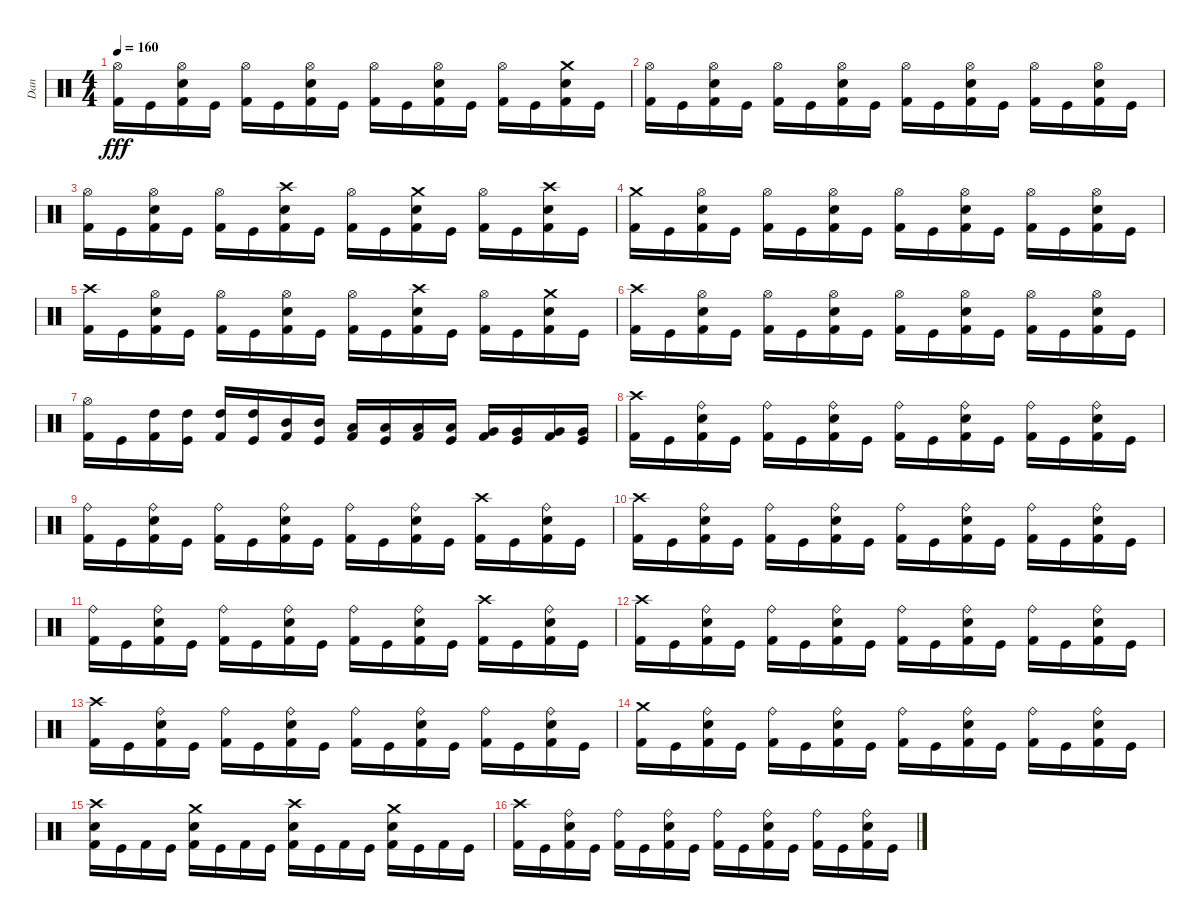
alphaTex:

\track ("Dan " "Dan ") {instrument percussion}
\staff {score}
\articulation defaults
\ts (4 4)
\tempo 160
\clef neutral
\ks c
("Hi-Hat (open)" "Kick (hit) 2").16{dy fff} "Kick (hit)".16 ("Hi-Hat (open)" "Electric Snare (hit)" "Kick (hit) 2").16 "Kick (hit)".16 ("Hi-Hat (open)" "Kick (hit) 2").16 "Kick (hit)".16 ("Hi-Hat (open)" "Electric Snare (hit)" "Kick (hit) 2").16 "Kick (hit)".16 ("Hi-Hat (open)" "Kick (hit) 2").16 "Kick (hit)".16 ("Hi-Hat (open)" "Electric Snare (hit)" "Kick (hit) 2").16 "Kick (hit)".16 ("Hi-Hat (open)" "Kick (hit) 2").16 "Kick (hit)".16 ("Crash medium (hit)" "Electric Snare (hit)" "Kick (hit) 2").16 "Kick (hit)".16 |
("Hi-Hat (open)" "Kick (hit) 2").16 "Kick (hit)".16 ("Hi-Hat (open)" "Electric Snare (hit)" "Kick (hit) 2").16 "Kick (hit)".16 ("Hi-Hat (open)" "Kick (hit) 2").16 "Kick (hit)".16 ("Hi-Hat (open)" "Electric Snare (hit)" "Kick (hit) 2").16 "Kick (hit)".16 ("Hi-Hat (open)" "Kick (hit) 2").16 "Kick (hit)".16 ("Hi-Hat (open)" "Electric Snare (hit)" "Kick (hit) 2").16 "Kick (hit)".16 ("Hi-Hat (open)" "Kick (hit) 2").16 "Kick (hit)".16 ("Hi-Hat (open)" "Electric Snare (hit)" "Kick (hit) 2").16 "Kick (hit)".16 |
("Hi-Hat (open)" "Kick (hit) 2").16 "Kick (hit)".16 ("Hi-Hat (open)" "Electric Snare (hit)" "Kick (hit) 2").16 "Kick (hit)".16 ("Hi-Hat (open)" "Kick (hit) 2").16 "Kick (hit)".16 ("Crash high (hit)" "Electric Snare (hit)" "Kick (hit) 2").16 "Kick (hit)".16 ("Hi-Hat (open)" "Kick (hit) 2").16 "Kick (hit)".16 ("Crash medium (hit)" "Electric Snare (hit)" "Kick (hit) 2").16 "Kick (hit)".16 ("Hi-Hat (open)" "Kick (hit) 2").16 "Kick (hit)".16 ("Crash high (hit)" "Electric Snare (hit)" "Kick (hit) 2").16 "Kick (hit)".16 |
("Crash medium (hit)" "Kick (hit) 2").16 "Kick (hit)".16 ("Hi-Hat (open)" "Electric Snare (hit)" "Kick (hit) 2").16 "Kick (hit)".16 ("Hi-Hat (open)" "Kick (hit) 2").16 "Kick (hit)".16 ("Hi-Hat (open)" "Electric Snare (hit)" "Kick (hit) 2").16 "Kick (hit)".16 ("Hi-Hat (open)" "Kick (hit) 2").16 "Kick (hit)".16 ("Hi-Hat (open)" "Electric Snare (hit)" "Kick (hit) 2").16 "Kick (hit)".16 ("Hi-Hat (open)" "Kick (hit) 2").16 "Kick (hit)".16 ("Hi-Hat (open)" "Electric Snare (hit)" "Kick (hit) 2").16 "Kick (hit)".16 |
("Crash high (hit)" "Kick (hit) 2").16 "Kick (hit)".16 ("Hi-Hat (open)" "Electric Snare (hit)" "Kick (hit) 2").16 "Kick (hit)".16 ("Hi-Hat (open)" "Kick (hit) 2").16 "Kick (hit)".16 ("Hi-Hat (open)" "Electric Snare (hit)" "Kick (hit) 2").16 "Kick (hit)".16 ("Hi-Hat (open)" "Kick (hit) 2").16 "Kick (hit)".16 ("Crash high (hit)" "Electric Snare (hit)" "Kick (hit) 2").16 "Kick (hit)".16 ("Hi-Hat (open)" "Kick (hit) 2").16 "Kick (hit)".16 ("Crash medium (hit)" "Electric Snare (hit)" "Kick (hit) 2").16 "Kick (hit)".16 |
("Crash high (hit)" "Kick (hit) 2").16 "Kick (hit)".16 ("Hi-Hat (open)" "Electric Snare (hit)" "Kick (hit) 2").16 "Kick (hit)".16 ("Hi-Hat (open)" "Kick (hit) 2").16 "Kick (hit)".16 ("Hi-Hat (open)" "Electric Snare (hit)" "Kick (hit) 2").16 "Kick (hit)".16 ("Hi-Hat (open)" "Kick (hit) 2").16 "Kick (hit)".16 ("Hi-Hat (open)" "Electric Snare (hit)" "Kick (hit) 2").16 "Kick (hit)".16 ("Hi-Hat (open)" "Kick (hit) 2").16 "Kick (hit)".16 ("Hi-Hat (open)" "Electric Snare (hit)" "Kick (hit) 2").16 "Kick (hit)".16 |
("Hi-Hat (open)" "Kick (hit) 2").16 "Kick (hit)".16 ("High Tom (hit)" "Kick (hit) 2").16 ("High Tom (hit)" "Kick (hit)").16 ("High Tom (hit)" "Kick (hit) 2").16 ("High Tom (hit)" "Kick (hit)").16 ("Mid Tom (hit)" "Kick (hit) 2").16 ("Mid Tom (hit)" "Kick (hit)").16 ("Low Tom (hit)" "Kick (hit) 2").16 ("Low Tom (hit)" "Kick (hit)").16 ("Low Tom (hit)" "Kick (hit) 2").16 ("Low Tom (hit)" "Kick (hit)").16 ("Very Low Tom (hit)" "Kick (hit) 2").16 ("Very Low Tom (hit)" "Kick (hit)").16 ("Very Low Tom (hit)" "Kick (hit) 2").16 ("Very Low Tom (hit)" "Kick (hit)").16 |
("Crash high (hit)" "Kick (hit) 2").16 "Kick (hit)".16 ("Ride (bell)" "Electric Snare (hit)" "Kick (hit) 2").16 "Kick (hit)".16 ("Ride (bell)" "Kick (hit) 2").16 "Kick (hit)".16 ("Ride (bell)" "Electric Snare (hit)" "Kick (hit) 2").16 "Kick (hit)".16 ("Ride (bell)" "Kick (hit) 2").16 "Kick (hit)".16 ("Ride (bell)" "Electric Snare (hit)" "Kick (hit) 2").16 "Kick (hit)".16 ("Ride (bell)" "Kick (hit) 2").16 "Kick (hit)".16 ("Ride (bell)" "Electric Snare (hit)" "Kick (hit) 2").16 "Kick (hit)".16 |
("Ride (bell)" "Kick (hit) 2").16 "Kick (hit)".16 ("Ride (bell)" "Electric Snare (hit)" "Kick (hit) 2").16 "Kick (hit)".16 ("Ride (bell)" "Kick (hit) 2").16 "Kick (hit)".16 ("Ride (bell)" "Electric Snare (hit)" "Kick (hit) 2").16 "Kick (hit)".16 ("Ride (bell)" "Kick (hit) 2").16 "Kick (hit)".16 ("Ride (bell)" "Electric Snare (hit)" "Kick (hit) 2").16 "Kick (hit)".16 ("Crash high (hit)" "Kick (hit) 2").16 "Kick (hit)".16 ("Ride (bell)" "Electric Snare (hit)" "Kick (hit) 2").16 "Kick (hit)".16 |
("Crash high (hit)" "Kick (hit) 2").16 "Kick (hit)".16 ("Ride (bell)" "Electric Snare (hit)" "Kick (hit) 2").16 "Kick (hit)".16 ("Ride (bell)" "Kick (hit) 2").16 "Kick (hit)".16 ("Ride (bell)" "Electric Snare (hit)" "Kick (hit) 2").16 "Kick (hit)".16 ("Ride (bell)" "Kick (hit) 2").16 "Kick (hit)".16 ("Ride (bell)" "Electric Snare (hit)" "Kick (hit) 2").16 "Kick (hit)".16 ("Ride (bell)" "Kick (hit) 2").16 "Kick (hit)".16 ("Ride (bell)" "Electric Snare (hit)" "Kick (hit) 2").16 "Kick (hit)".16 |
("Ride (bell)" "Kick (hit) 2").16 "Kick (hit)".16 ("Ride (bell)" "Electric Snare (hit)" "Kick (hit) 2").16 "Kick (hit)".16 ("Ride (bell)" "Kick (hit) 2").16 "Kick (hit)".16 ("Ride (bell)" "Electric Snare (hit)" "Kick (hit) 2").16 "Kick (hit)".16 ("Ride (bell)" "Kick (hit) 2").16 "Kick (hit)".16 ("Ride (bell)" "Electric Snare (hit)" "Kick (hit) 2").16 "Kick (hit)".16 ("Crash high (hit)" "Kick (hit) 2").16 "Kick (hit)".16 ("Ride (bell)" "Electric Snare (hit)" "Kick (hit) 2").16 "Kick (hit)".16 |
("Crash high (hit)" "Kick (hit) 2").16 "Kick (hit)".16 ("Ride (bell)" "Electric Snare (hit)" "Kick (hit) 2").16 "Kick (hit)".16 ("Ride (bell)" "Kick (hit) 2").16 "Kick (hit)".16 ("Ride (bell)" "Electric Snare (hit)" "Kick (hit) 2").16 "Kick (hit)".16 ("Ride (bell)" "Kick (hit) 2").16 "Kick (hit)".16 ("Ride (bell)" "Electric Snare (hit)" "Kick (hit) 2").16 "Kick (hit)".16 ("Ride (bell)" "Kick (hit) 2").16 "Kick (hit)".16 ("Ride (bell)" "Electric Snare (hit)" "Kick (hit) 2").16 "Kick (hit)".16 |
("Crash high (hit)" "Kick (hit) 2").16 "Kick (hit)".16 ("Ride (bell)" "Electric Snare (hit)" "Kick (hit) 2").16 "Kick (hit)".16 ("Ride (bell)" "Kick (hit) 2").16 "Kick (hit)".16 ("Ride (bell)" "Electric Snare (hit)" "Kick (hit) 2").16 "Kick (hit)".16 ("Ride (bell)" "Kick (hit) 2").16 "Kick (hit)".16 ("Ride (bell)" "Electric Snare (hit)" "Kick (hit) 2").16 "Kick (hit)".16 ("Ride (bell)" "Kick (hit) 2").16 "Kick (hit)".16 ("Ride (bell)" "Electric Snare (hit)" "Kick (hit) 2").16 "Kick (hit)".16 |
("Crash medium (hit)" "Kick (hit) 2").16 "Kick (hit)".16 ("Ride (bell)" "Electric Snare (hit)" "Kick (hit) 2").16 "Kick (hit)".16 ("Ride (bell)" "Kick (hit) 2").16 "Kick (hit)".16 ("Ride (bell)" "Electric Snare (hit)" "Kick (hit) 2").16 "Kick (hit)".16 ("Ride (bell)" "Kick (hit) 2").16 "Kick (hit)".16 ("Ride (bell)" "Electric Snare (hit)" "Kick (hit) 2").16 "Kick (hit)".16 ("Ride (bell)" "Kick (hit) 2").16 "Kick (hit)".16 ("Ride (bell)" "Electric Snare (hit)" "Kick (hit) 2").16 "Kick (hit)".16 |
("Crash high (hit)" "Electric Snare (hit)" "Kick (hit) 2").16 "Kick (hit)".16 "Kick (hit) 2".16 "Kick (hit)".16 ("Crash medium (hit)" "Electric Snare (hit)" "Kick (hit) 2").16 "Kick (hit)".16 "Kick (hit) 2".16 "Kick (hit)".16 ("Crash high (hit)" "Electric Snare (hit)" "Kick (hit) 2").16 "Kick (hit)".16 "Kick (hit) 2".16 "Kick (hit)".16 ("Crash medium (hit)" "Electric Snare (hit)" "Kick (hit) 2").16 "Kick (hit)".16 "Kick (hit) 2".16 "Kick (hit)".16 |
("Crash high (hit)" "Kick (hit) 2").16 "Kick (hit)".16 ("Ride (bell)" "Electric Snare (hit)" "Kick (hit) 2").16 "Kick (hit)".16 ("Ride (bell)" "Kick (hit) 2").16 "Kick (hit)".16 ("Ride (bell)" "Electric Snare (hit)" "Kick (hit) 2").16 "Kick (hit)".16 ("Ride (bell)" "Kick (hit) 2").16 "Kick (hit)".16 ("Ride (bell)" "Electric Snare (hit)" "Kick (hit) 2").16 "Kick (hit)".16 ("Ride (bell)" "Kick (hit) 2").16 "Kick (hit)".16 ("Ride (bell)" "Electric Snare (hit)" "Kick (hit) 2").16 "Kick (hit)".16
